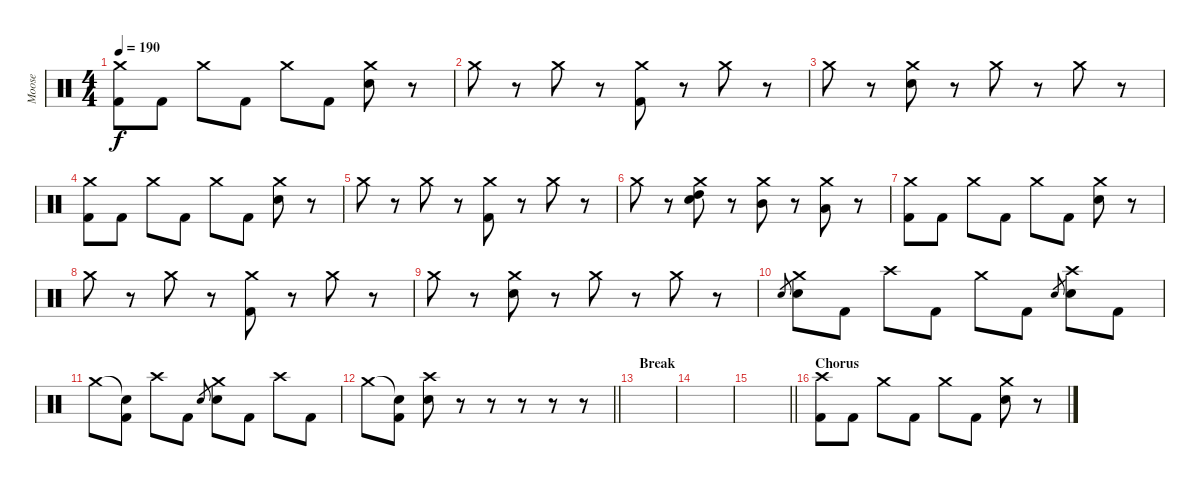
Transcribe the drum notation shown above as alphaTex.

\track ("Moose" "Moose") {instrument percussion}
\staff {score}
\articulation defaults
\ts (4 4)
\tempo 190
\clef neutral
\ks c
("Crash medium (hit)" "Kick (hit) 2").8{dy f} "Kick (hit) 2".8 "Crash medium (hit)".8 "Kick (hit) 2".8 "Crash medium (hit)".8 "Kick (hit) 2".8 ("Crash medium (hit)" "Snare (hit) 2").8 r.8 |
"Crash medium (hit)".8 r.8 "Crash medium (hit)".8 r.8 ("Crash medium (hit)" "Kick (hit) 2").8 r.8 "Crash medium (hit)".8 r.8 |
"Crash medium (hit)".8 r.8 ("Crash medium (hit)" "Snare (hit) 2").8 r.8 "Crash medium (hit)".8 r.8 "Crash medium (hit)".8 r.8 |
("Crash medium (hit)" "Kick (hit) 2").8 "Kick (hit) 2".8 "Crash medium (hit)".8 "Kick (hit) 2".8 "Crash medium (hit)".8 "Kick (hit) 2".8 ("Crash medium (hit)" "Snare (hit) 2").8 r.8 |
"Crash medium (hit)".8 r.8 "Crash medium (hit)".8 r.8 ("Crash medium (hit)" "Kick (hit) 2").8 r.8 "Crash medium (hit)".8 r.8 |
"Crash medium (hit)".8 r.8 ("Crash medium (hit)" "High Tom (hit)" "Snare (hit) 2").8 r.8 ("Crash medium (hit)" "Mid Tom (hit)").8 r.8 ("Crash medium (hit)" "Low Tom (hit)").8 r.8 |
("Crash medium (hit)" "Kick (hit) 2").8 "Kick (hit) 2".8 "Crash medium (hit)".8 "Kick (hit) 2".8 "Crash medium (hit)".8 "Kick (hit) 2".8 ("Crash medium (hit)" "Snare (hit) 2").8 r.8 |
"Crash medium (hit)".8 r.8 "Crash medium (hit)".8 r.8 ("Crash medium (hit)" "Kick (hit) 2").8 r.8 "Crash medium (hit)".8 r.8 |
"Crash medium (hit)".8 r.8 ("Crash medium (hit)" "Snare (hit) 2").8 r.8 "Crash medium (hit)".8 r.8 "Crash medium (hit)".8 r.8 |
"Snare (hit) 2".8{gr} ("Crash medium (hit)" "Snare (hit) 2").8 "Kick (hit) 2".8 "Crash high (hit)".8 "Kick (hit) 2".8 "Crash medium (hit)".8 "Kick (hit) 2".8 "Snare (hit) 2".8{gr} ("Crash high (hit)" "Snare (hit) 2").8 "Kick (hit) 2".8 |
"Crash medium (hit)".8 ("Snare (hit)"{t} "Kick (hit) 2").8 "Crash high (hit)".8 "Kick (hit) 2".8 "Snare (hit) 2".8{gr} ("Crash medium (hit)" "Snare (hit) 2").8 "Kick (hit) 2".8 "Crash high (hit)".8 "Kick (hit) 2".8 |
\barLineRight lightlight "Crash medium (hit)".8
("Snare (hit)"{t} "Kick (hit) 2").8 ("Crash high (hit)" "Snare (hit) 2").8 r.8 r.8 r.8 r.8 r.8 |
\section ("" "Break")
|
|
\barLineRight lightlight
|
\section ("" "Chorus")
("Crash high (hit)" "Kick (hit) 2").8 "Kick (hit) 2".8 "Crash medium (hit)".8 "Kick (hit) 2".8 "Crash medium (hit)".8 "Kick (hit) 2".8 ("Crash medium (hit)" "Snare (hit) 2").8 r.8
